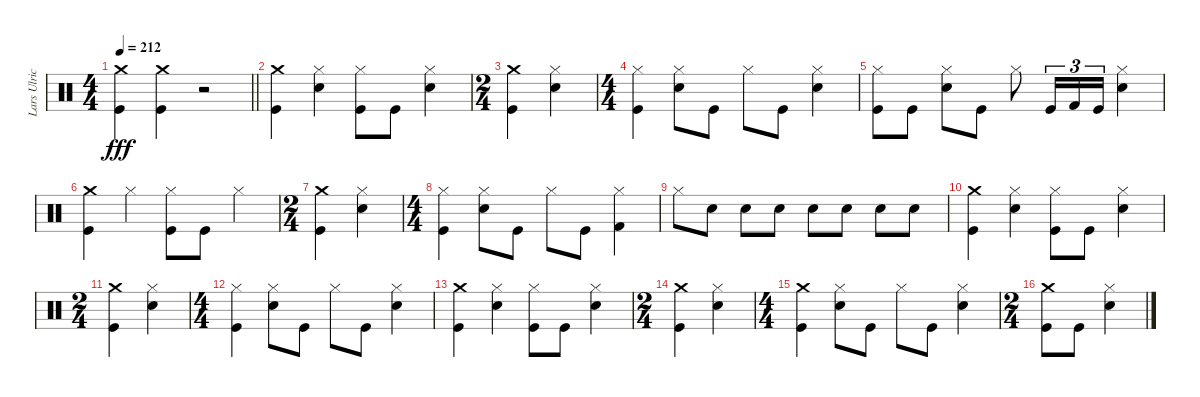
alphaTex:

\track ("Lars Ulrich" "Lars Ulric") {instrument percussion}
\staff {score}
\articulation defaults
\ts (4 4)
\tempo 212
\clef neutral
\barLineRight lightlight
\ks c
("Kick (hit)" "Crash medium (hit)").4{dy fff} ("Crash medium (hit)" "Kick (hit)").4 r.2 |
("Kick (hit)" "Crash medium (hit)").4 ("Snare (hit) 2" "Hi-Hat (closed)").4 ("Kick (hit)" "Hi-Hat (closed)").8 "Kick (hit)".8 ("Snare (hit) 2" "Hi-Hat (closed)").4 |
\ts (2 4)
("Kick (hit)" "Crash medium (hit)").4 ("Hi-Hat (closed)" "Snare (hit) 2").4 |
\ts (4 4)
("Kick (hit)" "Hi-Hat (closed)").4 ("Snare (hit) 2" "Hi-Hat (closed)").8 "Kick (hit)".8 "Hi-Hat (closed)".8 "Kick (hit)".8 ("Snare (hit) 2" "Hi-Hat (closed)").4 |
("Kick (hit)" "Hi-Hat (closed)").8 "Kick (hit)".8 ("Hi-Hat (closed)" "Snare (hit) 2").8 "Kick (hit)".8 "Hi-Hat (closed)".8 "Kick (hit)".16{tu (3 2)} "Kick (hit) 2".16{tu (3 2)} "Kick (hit)".16{tu (3 2)} ("Snare (hit) 2" "Hi-Hat (closed)").4 |
("Kick (hit)" "Crash medium (hit)").4 "Hi-Hat (closed)".4 ("Hi-Hat (closed)" "Kick (hit)").8 "Kick (hit)".8 "Hi-Hat (closed)".4 |
\ts (2 4)
("Kick (hit)" "Crash medium (hit)").4 ("Snare (hit) 2" "Hi-Hat (closed)").4 |
\ts (4 4)
("Kick (hit)" "Hi-Hat (closed)").4 ("Snare (hit) 2" "Hi-Hat (closed)").8 "Kick (hit)".8 "Hi-Hat (closed)".8 "Kick (hit)".8 ("Kick (hit) 2" "Hi-Hat (closed)").4 |
"Hi-Hat (closed)".8 "Snare (hit) 2".8 "Snare (hit) 2".8 "Snare (hit) 2".8 "Snare (hit) 2".8 "Snare (hit) 2".8 "Snare (hit) 2".8 "Snare (hit) 2".8 |
("Crash medium (hit)" "Kick (hit)").4 ("Hi-Hat (closed)" "Snare (hit) 2").4 ("Hi-Hat (closed)" "Kick (hit)").8 "Kick (hit)".8 ("Snare (hit) 2" "Hi-Hat (closed)").4 |
\ts (2 4)
("Kick (hit)" "Crash medium (hit)").4 ("Snare (hit) 2" "Hi-Hat (closed)").4 |
\ts (4 4)
("Hi-Hat (closed)" "Kick (hit)").4 ("Snare (hit) 2" "Hi-Hat (closed)").8 "Kick (hit)".8 "Hi-Hat (closed)".8 "Kick (hit)".8 ("Snare (hit) 2" "Hi-Hat (closed)").4 |
("Kick (hit)" "Crash medium (hit)").4 ("Snare (hit) 2" "Hi-Hat (closed)").4 ("Kick (hit)" "Hi-Hat (closed)").8 "Kick (hit)".8 ("Hi-Hat (closed)" "Snare (hit) 2").4 |
\ts (2 4)
("Kick (hit)" "Crash medium (hit)").4 ("Snare (hit) 2" "Hi-Hat (closed)").4 |
\ts (4 4)
("Kick (hit)" "Crash medium (hit)").4 ("Snare (hit) 2" "Hi-Hat (closed)").8 "Kick (hit)".8 "Hi-Hat (closed)".8 "Kick (hit)".8 ("Hi-Hat (closed)" "Snare (hit) 2").4 |
\ts (2 4)
("Kick (hit)" "Crash medium (hit)").8 "Kick (hit)".8 ("Snare (hit) 2" "Hi-Hat (closed)").4
